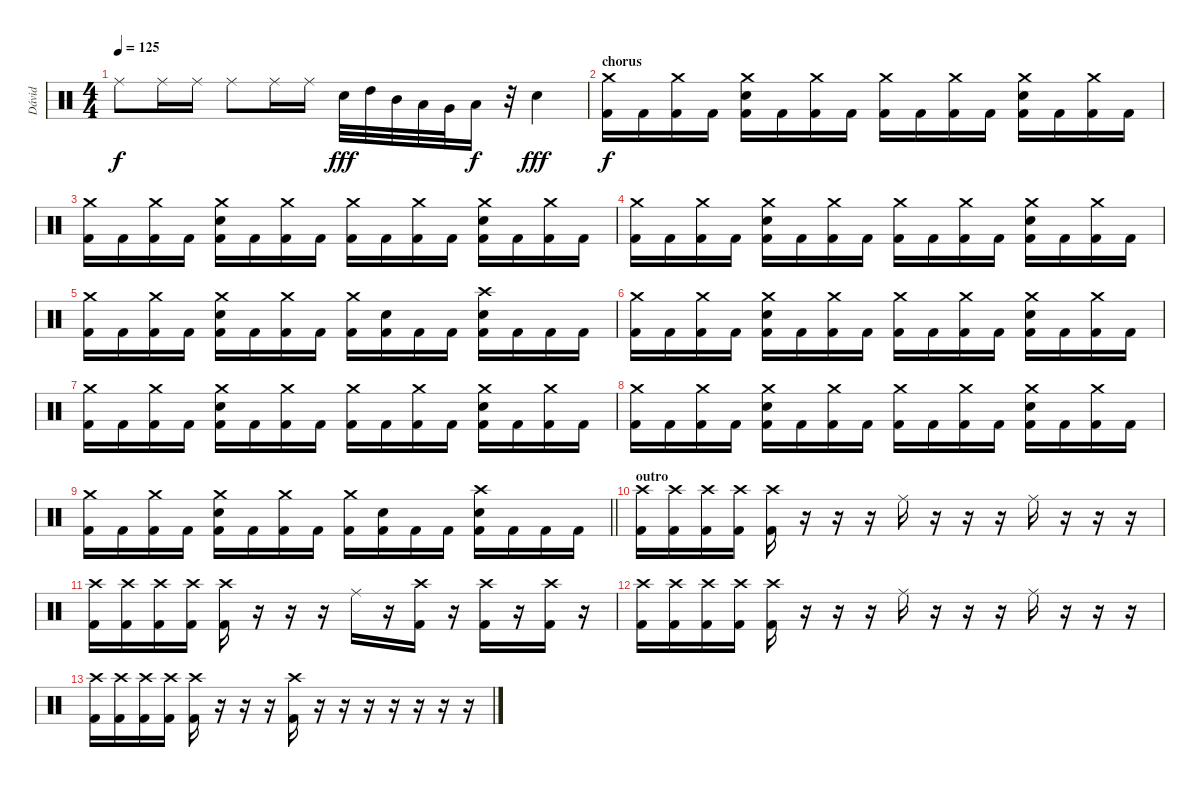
\track ("Dávid" "Dávid") {instrument percussion}
\staff {score}
\articulation defaults
\ts (4 4)
\tempo 125
\clef neutral
\ks c "Ride (middle)".8{dy f} "Ride (middle)".16 "Ride (middle)".16 "Ride (middle)".8 "Ride (middle)".16 "Ride (middle)".16 "Electric Snare (hit)".32{dy fff} "High Tom (hit)".32 "Mid Tom (hit)".32 "Low Tom (hit)".32 "Very Low Tom (hit)".32 "Low Floor Tom (hit)".16{dy f}
r.32 "Electric Snare (hit)".4{dy fff} |
\section ("" "chorus")
("Crash medium (hit)" "Kick (hit) 2").16{dy f} "Kick (hit) 2".16 ("Crash medium (hit)" "Kick (hit) 2").16 "Kick (hit) 2".16 ("Crash medium (hit)" "Electric Snare (hit)" "Kick (hit) 2").16 "Kick (hit) 2".16 ("Crash medium (hit)" "Kick (hit) 2").16 "Kick (hit) 2".16 ("Crash medium (hit)" "Kick (hit) 2").16 "Kick (hit) 2".16 ("Crash medium (hit)" "Kick (hit) 2").16 "Kick (hit) 2".16 ("Crash medium (hit)" "Electric Snare (hit)" "Kick (hit) 2").16 "Kick (hit) 2".16 ("Crash medium (hit)" "Kick (hit) 2").16 "Kick (hit) 2".16 |
("Crash medium (hit)" "Kick (hit) 2").16 "Kick (hit) 2".16 ("Crash medium (hit)" "Kick (hit) 2").16 "Kick (hit) 2".16 ("Crash medium (hit)" "Electric Snare (hit)" "Kick (hit) 2").16 "Kick (hit) 2".16 ("Crash medium (hit)" "Kick (hit) 2").16 "Kick (hit) 2".16 ("Crash medium (hit)" "Kick (hit) 2").16 "Kick (hit) 2".16 ("Crash medium (hit)" "Kick (hit) 2").16 "Kick (hit) 2".16 ("Crash medium (hit)" "Electric Snare (hit)" "Kick (hit) 2").16 "Kick (hit) 2".16 ("Crash medium (hit)" "Kick (hit) 2").16 "Kick (hit) 2".16 |
("Crash medium (hit)" "Kick (hit) 2").16 "Kick (hit) 2".16 ("Crash medium (hit)" "Kick (hit) 2").16 "Kick (hit) 2".16 ("Crash medium (hit)" "Electric Snare (hit)" "Kick (hit) 2").16 "Kick (hit) 2".16 ("Crash medium (hit)" "Kick (hit) 2").16 "Kick (hit) 2".16 ("Crash medium (hit)" "Kick (hit) 2").16 "Kick (hit) 2".16 ("Crash medium (hit)" "Kick (hit) 2").16 "Kick (hit) 2".16 ("Crash medium (hit)" "Electric Snare (hit)" "Kick (hit) 2").16 "Kick (hit) 2".16 ("Crash medium (hit)" "Kick (hit) 2").16 "Kick (hit) 2".16 |
("Crash medium (hit)" "Kick (hit) 2").16 "Kick (hit) 2".16 ("Crash medium (hit)" "Kick (hit) 2").16 "Kick (hit) 2".16 ("Crash medium (hit)" "Electric Snare (hit)" "Kick (hit) 2").16 "Kick (hit) 2".16 ("Crash medium (hit)" "Kick (hit) 2").16 "Kick (hit) 2".16 ("Crash medium (hit)" "Kick (hit) 2").16 ("Electric Snare (hit)" "Kick (hit) 2").16 "Kick (hit) 2".16 "Kick (hit) 2".16 ("Crash high (hit)" "Electric Snare (hit)" "Kick (hit) 2").16 "Kick (hit) 2".16 "Kick (hit) 2".16 "Kick (hit) 2".16 |
("Crash medium (hit)" "Kick (hit) 2").16 "Kick (hit) 2".16 ("Crash medium (hit)" "Kick (hit) 2").16 "Kick (hit) 2".16 ("Crash medium (hit)" "Electric Snare (hit)" "Kick (hit) 2").16 "Kick (hit) 2".16 ("Crash medium (hit)" "Kick (hit) 2").16 "Kick (hit) 2".16 ("Crash medium (hit)" "Kick (hit) 2").16 "Kick (hit) 2".16 ("Crash medium (hit)" "Kick (hit) 2").16 "Kick (hit) 2".16 ("Crash medium (hit)" "Electric Snare (hit)" "Kick (hit) 2").16 "Kick (hit) 2".16 ("Crash medium (hit)" "Kick (hit) 2").16 "Kick (hit) 2".16 |
("Crash medium (hit)" "Kick (hit) 2").16 "Kick (hit) 2".16 ("Crash medium (hit)" "Kick (hit) 2").16 "Kick (hit) 2".16 ("Crash medium (hit)" "Electric Snare (hit)" "Kick (hit) 2").16 "Kick (hit) 2".16 ("Crash medium (hit)" "Kick (hit) 2").16 "Kick (hit) 2".16 ("Crash medium (hit)" "Kick (hit) 2").16 "Kick (hit) 2".16 ("Crash medium (hit)" "Kick (hit) 2").16 "Kick (hit) 2".16 ("Crash medium (hit)" "Electric Snare (hit)" "Kick (hit) 2").16 "Kick (hit) 2".16 ("Crash medium (hit)" "Kick (hit) 2").16 "Kick (hit) 2".16 |
("Crash medium (hit)" "Kick (hit) 2").16 "Kick (hit) 2".16 ("Crash medium (hit)" "Kick (hit) 2").16 "Kick (hit) 2".16 ("Crash medium (hit)" "Electric Snare (hit)" "Kick (hit) 2").16 "Kick (hit) 2".16 ("Crash medium (hit)" "Kick (hit) 2").16 "Kick (hit) 2".16 ("Crash medium (hit)" "Kick (hit) 2").16 "Kick (hit) 2".16 ("Crash medium (hit)" "Kick (hit) 2").16 "Kick (hit) 2".16 ("Crash medium (hit)" "Electric Snare (hit)" "Kick (hit) 2").16 "Kick (hit) 2".16 ("Crash medium (hit)" "Kick (hit) 2").16 "Kick (hit) 2".16 |
\barLineRight lightlight
("Crash medium (hit)" "Kick (hit) 2").16 "Kick (hit) 2".16 ("Crash medium (hit)" "Kick (hit) 2").16 "Kick (hit) 2".16 ("Crash medium (hit)" "Electric Snare (hit)" "Kick (hit) 2").16 "Kick (hit) 2".16 ("Crash medium (hit)" "Kick (hit) 2").16 "Kick (hit) 2".16 ("Crash medium (hit)" "Kick (hit) 2").16 ("Electric Snare (hit)" "Kick (hit) 2").16 "Kick (hit) 2".16 "Kick (hit) 2".16 ("Crash high (hit)" "Electric Snare (hit)" "Kick (hit) 2").16 "Kick (hit) 2".16 "Kick (hit) 2".16 "Kick (hit) 2".16 |
\section ("" "outro")
("Crash high (hit)" "Kick (hit) 2").16 ("Crash high (hit)" "Kick (hit) 2").16 ("Crash high (hit)" "Kick (hit) 2").16 ("Crash high (hit)" "Kick (hit) 2").16 ("Crash high (hit)" "Kick (hit) 2").16 r.16 r.16 r.16 "Ride (middle)".16 r.16 r.16 r.16 "Ride (middle)".16 r.16 r.16 r.16 |
("Crash high (hit)" "Kick (hit) 2").16 ("Crash high (hit)" "Kick (hit) 2").16 ("Crash high (hit)" "Kick (hit) 2").16 ("Crash high (hit)" "Kick (hit) 2").16 ("Crash high (hit)" "Kick (hit) 2").16 r.16 r.16 r.16 "Ride (middle)".16 r.16 ("Crash high (hit)" "Kick (hit) 2").16 r.16 ("Crash high (hit)" "Kick (hit) 2").16 r.16 ("Crash high (hit)" "Kick (hit) 2").16 r.16 |
("Crash high (hit)" "Kick (hit) 2").16 ("Crash high (hit)" "Kick (hit) 2").16 ("Crash high (hit)" "Kick (hit) 2").16 ("Crash high (hit)" "Kick (hit) 2").16 ("Crash high (hit)" "Kick (hit) 2").16 r.16 r.16 r.16 "Ride (middle)".16 r.16 r.16 r.16 "Ride (middle)".16 r.16 r.16 r.16 |
("Crash high (hit)" "Kick (hit) 2").16 ("Crash high (hit)" "Kick (hit) 2").16 ("Crash high (hit)" "Kick (hit) 2").16 ("Crash high (hit)" "Kick (hit) 2").16 ("Crash high (hit)" "Kick (hit) 2").16 r.16 r.16 r.16 ("Crash high (hit)" "Kick (hit) 2").16 r.16 r.16 r.16 r.16 r.16 r.16 r.16
